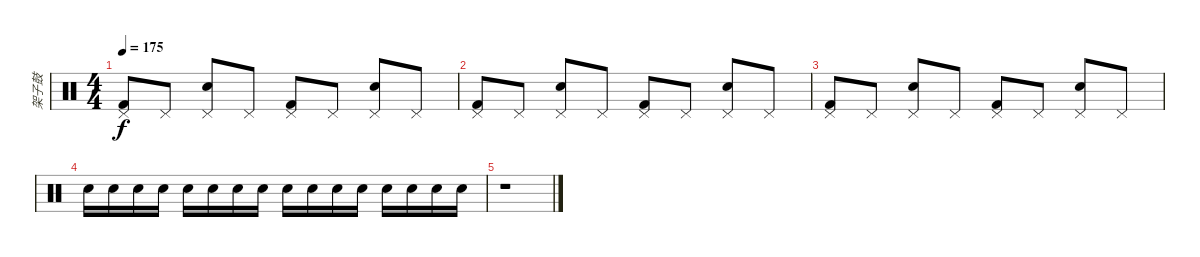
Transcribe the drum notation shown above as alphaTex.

\track ("架子鼓" "架子鼓") {instrument percussion}
\staff {score}
\articulation defaults
\ts (4 4)
\tempo 175
\clef neutral
\ks c
("Pedal Hi-Hat (hit)" "Kick (hit) 2").8{dy f} "Pedal Hi-Hat (hit)".8 ("Pedal Hi-Hat (hit)" "Electric Snare (hit)").8 "Pedal Hi-Hat (hit)".8 ("Pedal Hi-Hat (hit)" "Kick (hit) 2").8 "Pedal Hi-Hat (hit)".8 ("Pedal Hi-Hat (hit)" "Electric Snare (hit)").8 "Pedal Hi-Hat (hit)".8 |
("Pedal Hi-Hat (hit)" "Kick (hit) 2").8 "Pedal Hi-Hat (hit)".8 ("Pedal Hi-Hat (hit)" "Electric Snare (hit)").8 "Pedal Hi-Hat (hit)".8 ("Pedal Hi-Hat (hit)" "Kick (hit) 2").8 "Pedal Hi-Hat (hit)".8 ("Pedal Hi-Hat (hit)" "Electric Snare (hit)").8 "Pedal Hi-Hat (hit)".8 |
("Pedal Hi-Hat (hit)" "Kick (hit) 2").8 "Pedal Hi-Hat (hit)".8 ("Pedal Hi-Hat (hit)" "Electric Snare (hit)").8 "Pedal Hi-Hat (hit)".8 ("Pedal Hi-Hat (hit)" "Kick (hit) 2").8 "Pedal Hi-Hat (hit)".8 ("Pedal Hi-Hat (hit)" "Electric Snare (hit)").8 "Pedal Hi-Hat (hit)".8 |
"Electric Snare (hit)".16 "Electric Snare (hit)".16 "Electric Snare (hit)".16 "Electric Snare (hit)".16 "Electric Snare (hit)".16 "Electric Snare (hit)".16 "Electric Snare (hit)".16 "Electric Snare (hit)".16 "Electric Snare (hit)".16 "Electric Snare (hit)".16 "Electric Snare (hit)".16 "Electric Snare (hit)".16 "Electric Snare (hit)".16 "Electric Snare (hit)".16 "Electric Snare (hit)".16 "Electric Snare (hit)".16 |
r.1
